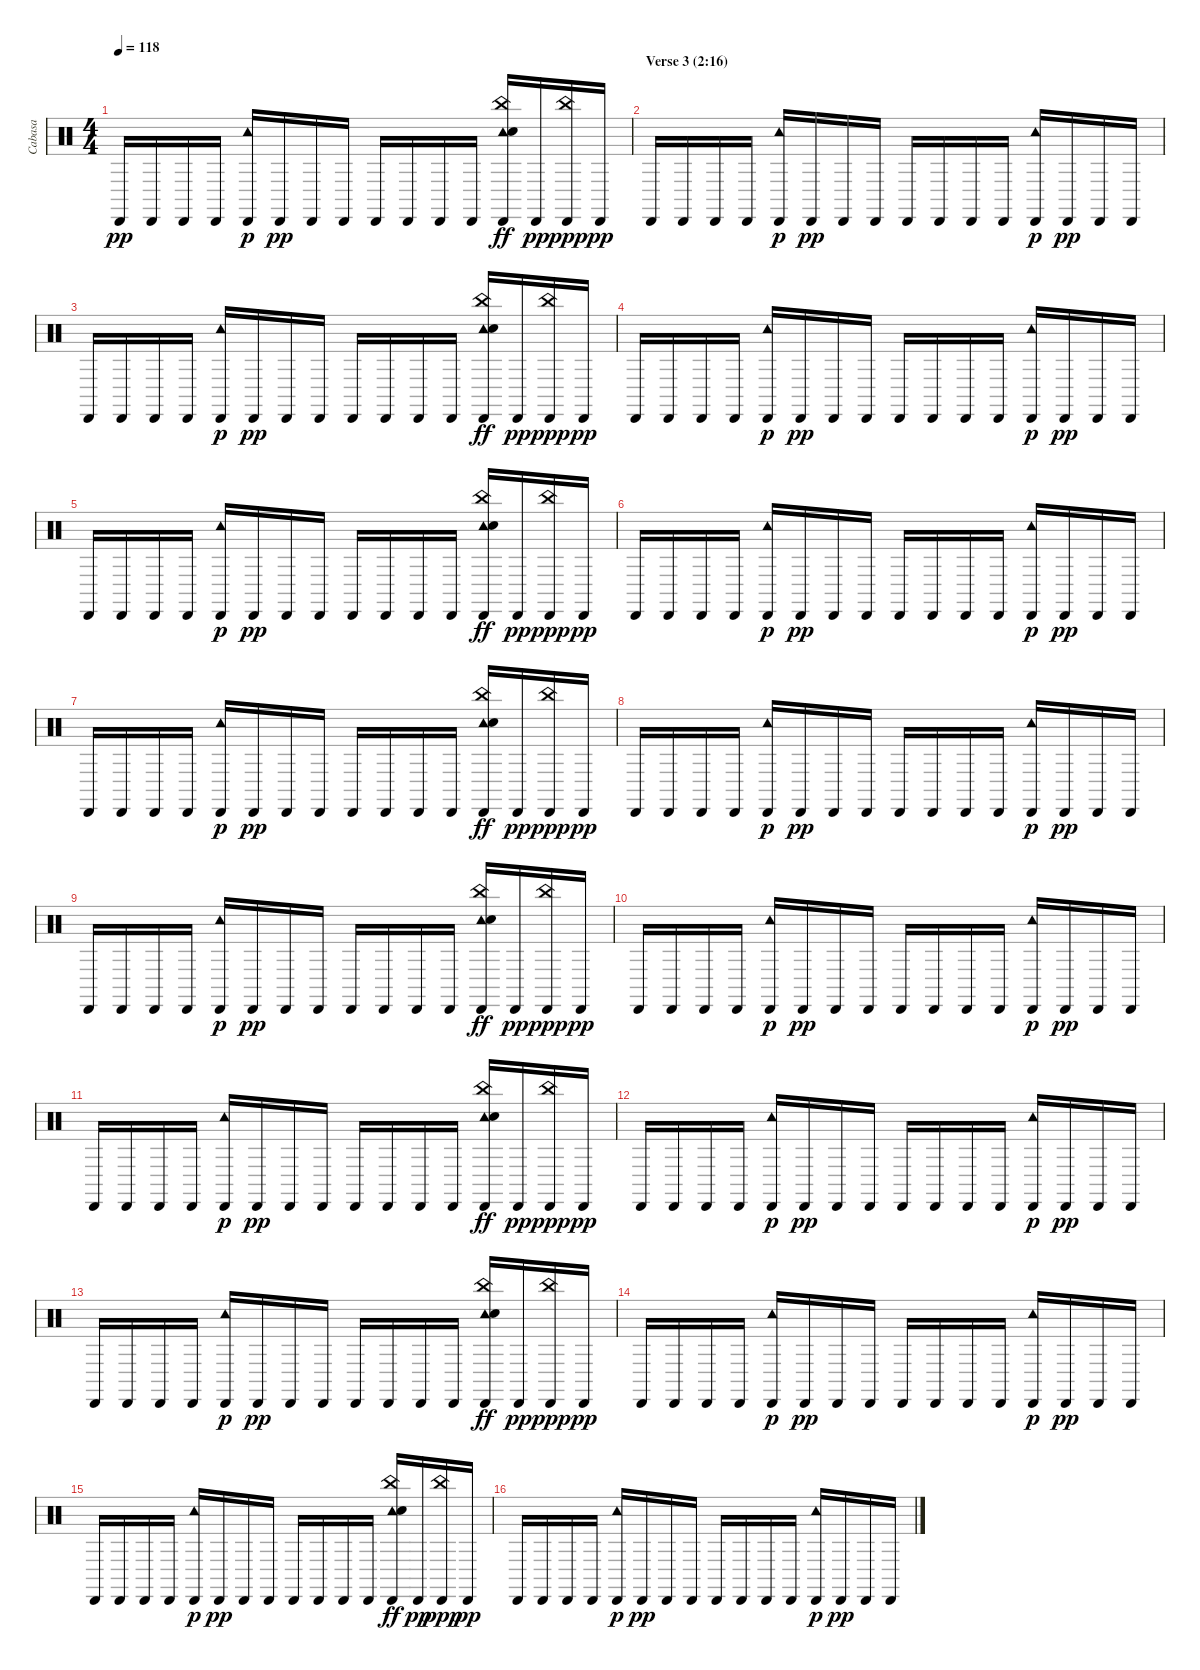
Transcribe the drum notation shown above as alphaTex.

\track ("Cabasa" "Cabasa") {instrument percussion}
\staff {score}
\articulation defaults
\ts (4 4)
\tempo 118
\clef neutral
\ks c "Cabasa (hit)".16{dy pp} "Cabasa (hit)".16 "Cabasa (hit)".16 "Cabasa (hit)".16
("Cabasa (hit)" "Tambourine (hit)").16{dy p} "Cabasa (hit)".16{dy pp} "Cabasa (hit)".16 "Cabasa (hit)".16 "Cabasa (hit)".16 "Cabasa (hit)".16 "Cabasa (hit)".16 "Cabasa (hit)".16 ("Cabasa (hit)" "Tambourine (hit)" "Hand Clap (hit)" "China (hit)").16{dy ff} "Cabasa (hit)".16{dy pp} ("Cabasa (hit)" "China (hit)").16{dy ppp} "Cabasa (hit)".16{dy pp} |
\section ("" "Verse 3 (2:16)")
"Cabasa (hit)".16 "Cabasa (hit)".16 "Cabasa (hit)".16 "Cabasa (hit)".16 ("Cabasa (hit)" "Tambourine (hit)").16{dy p} "Cabasa (hit)".16{dy pp} "Cabasa (hit)".16 "Cabasa (hit)".16 "Cabasa (hit)".16 "Cabasa (hit)".16 "Cabasa (hit)".16 "Cabasa (hit)".16 ("Cabasa (hit)" "Tambourine (hit)").16{dy p} "Cabasa (hit)".16{dy pp} "Cabasa (hit)".16 "Cabasa (hit)".16 |
"Cabasa (hit)".16 "Cabasa (hit)".16 "Cabasa (hit)".16 "Cabasa (hit)".16 ("Cabasa (hit)" "Tambourine (hit)").16{dy p} "Cabasa (hit)".16{dy pp} "Cabasa (hit)".16 "Cabasa (hit)".16 "Cabasa (hit)".16 "Cabasa (hit)".16 "Cabasa (hit)".16 "Cabasa (hit)".16 ("Cabasa (hit)" "Tambourine (hit)" "Hand Clap (hit)" "China (hit)").16{dy ff} "Cabasa (hit)".16{dy pp} ("Cabasa (hit)" "China (hit)").16{dy ppp} "Cabasa (hit)".16{dy pp} |
"Cabasa (hit)".16 "Cabasa (hit)".16 "Cabasa (hit)".16 "Cabasa (hit)".16 ("Cabasa (hit)" "Tambourine (hit)").16{dy p} "Cabasa (hit)".16{dy pp} "Cabasa (hit)".16 "Cabasa (hit)".16 "Cabasa (hit)".16 "Cabasa (hit)".16 "Cabasa (hit)".16 "Cabasa (hit)".16 ("Cabasa (hit)" "Tambourine (hit)").16{dy p} "Cabasa (hit)".16{dy pp} "Cabasa (hit)".16 "Cabasa (hit)".16 |
"Cabasa (hit)".16 "Cabasa (hit)".16 "Cabasa (hit)".16 "Cabasa (hit)".16 ("Cabasa (hit)" "Tambourine (hit)").16{dy p} "Cabasa (hit)".16{dy pp} "Cabasa (hit)".16 "Cabasa (hit)".16 "Cabasa (hit)".16 "Cabasa (hit)".16 "Cabasa (hit)".16 "Cabasa (hit)".16 ("Cabasa (hit)" "Tambourine (hit)" "Hand Clap (hit)" "China (hit)").16{dy ff} "Cabasa (hit)".16{dy pp} ("Cabasa (hit)" "China (hit)").16{dy ppp} "Cabasa (hit)".16{dy pp} |
"Cabasa (hit)".16 "Cabasa (hit)".16 "Cabasa (hit)".16 "Cabasa (hit)".16 ("Cabasa (hit)" "Tambourine (hit)").16{dy p} "Cabasa (hit)".16{dy pp} "Cabasa (hit)".16 "Cabasa (hit)".16 "Cabasa (hit)".16 "Cabasa (hit)".16 "Cabasa (hit)".16 "Cabasa (hit)".16 ("Cabasa (hit)" "Tambourine (hit)").16{dy p} "Cabasa (hit)".16{dy pp} "Cabasa (hit)".16 "Cabasa (hit)".16 |
"Cabasa (hit)".16 "Cabasa (hit)".16 "Cabasa (hit)".16 "Cabasa (hit)".16 ("Cabasa (hit)" "Tambourine (hit)").16{dy p} "Cabasa (hit)".16{dy pp} "Cabasa (hit)".16 "Cabasa (hit)".16 "Cabasa (hit)".16 "Cabasa (hit)".16 "Cabasa (hit)".16 "Cabasa (hit)".16 ("Cabasa (hit)" "Tambourine (hit)" "Hand Clap (hit)" "China (hit)").16{dy ff} "Cabasa (hit)".16{dy pp} ("Cabasa (hit)" "China (hit)").16{dy ppp} "Cabasa (hit)".16{dy pp} |
"Cabasa (hit)".16 "Cabasa (hit)".16 "Cabasa (hit)".16 "Cabasa (hit)".16 ("Cabasa (hit)" "Tambourine (hit)").16{dy p} "Cabasa (hit)".16{dy pp} "Cabasa (hit)".16 "Cabasa (hit)".16 "Cabasa (hit)".16 "Cabasa (hit)".16 "Cabasa (hit)".16 "Cabasa (hit)".16 ("Cabasa (hit)" "Tambourine (hit)").16{dy p} "Cabasa (hit)".16{dy pp} "Cabasa (hit)".16 "Cabasa (hit)".16 |
"Cabasa (hit)".16 "Cabasa (hit)".16 "Cabasa (hit)".16 "Cabasa (hit)".16 ("Cabasa (hit)" "Tambourine (hit)").16{dy p} "Cabasa (hit)".16{dy pp} "Cabasa (hit)".16 "Cabasa (hit)".16 "Cabasa (hit)".16 "Cabasa (hit)".16 "Cabasa (hit)".16 "Cabasa (hit)".16 ("Cabasa (hit)" "Tambourine (hit)" "Hand Clap (hit)" "China (hit)").16{dy ff} "Cabasa (hit)".16{dy pp} ("Cabasa (hit)" "China (hit)").16{dy ppp} "Cabasa (hit)".16{dy pp} |
"Cabasa (hit)".16 "Cabasa (hit)".16 "Cabasa (hit)".16 "Cabasa (hit)".16 ("Cabasa (hit)" "Tambourine (hit)").16{dy p} "Cabasa (hit)".16{dy pp} "Cabasa (hit)".16 "Cabasa (hit)".16 "Cabasa (hit)".16 "Cabasa (hit)".16 "Cabasa (hit)".16 "Cabasa (hit)".16 ("Cabasa (hit)" "Tambourine (hit)").16{dy p} "Cabasa (hit)".16{dy pp} "Cabasa (hit)".16 "Cabasa (hit)".16 |
"Cabasa (hit)".16 "Cabasa (hit)".16 "Cabasa (hit)".16 "Cabasa (hit)".16 ("Cabasa (hit)" "Tambourine (hit)").16{dy p} "Cabasa (hit)".16{dy pp} "Cabasa (hit)".16 "Cabasa (hit)".16 "Cabasa (hit)".16 "Cabasa (hit)".16 "Cabasa (hit)".16 "Cabasa (hit)".16 ("Cabasa (hit)" "Tambourine (hit)" "Hand Clap (hit)" "China (hit)").16{dy ff} "Cabasa (hit)".16{dy pp} ("Cabasa (hit)" "China (hit)").16{dy ppp} "Cabasa (hit)".16{dy pp} |
"Cabasa (hit)".16 "Cabasa (hit)".16 "Cabasa (hit)".16 "Cabasa (hit)".16 ("Cabasa (hit)" "Tambourine (hit)").16{dy p} "Cabasa (hit)".16{dy pp} "Cabasa (hit)".16 "Cabasa (hit)".16 "Cabasa (hit)".16 "Cabasa (hit)".16 "Cabasa (hit)".16 "Cabasa (hit)".16 ("Cabasa (hit)" "Tambourine (hit)").16{dy p} "Cabasa (hit)".16{dy pp} "Cabasa (hit)".16 "Cabasa (hit)".16 |
"Cabasa (hit)".16 "Cabasa (hit)".16 "Cabasa (hit)".16 "Cabasa (hit)".16 ("Cabasa (hit)" "Tambourine (hit)").16{dy p} "Cabasa (hit)".16{dy pp} "Cabasa (hit)".16 "Cabasa (hit)".16 "Cabasa (hit)".16 "Cabasa (hit)".16 "Cabasa (hit)".16 "Cabasa (hit)".16 ("Cabasa (hit)" "Tambourine (hit)" "Hand Clap (hit)" "China (hit)").16{dy ff} "Cabasa (hit)".16{dy pp} ("Cabasa (hit)" "China (hit)").16{dy ppp} "Cabasa (hit)".16{dy pp} |
"Cabasa (hit)".16 "Cabasa (hit)".16 "Cabasa (hit)".16 "Cabasa (hit)".16 ("Cabasa (hit)" "Tambourine (hit)").16{dy p} "Cabasa (hit)".16{dy pp} "Cabasa (hit)".16 "Cabasa (hit)".16 "Cabasa (hit)".16 "Cabasa (hit)".16 "Cabasa (hit)".16 "Cabasa (hit)".16 ("Cabasa (hit)" "Tambourine (hit)").16{dy p} "Cabasa (hit)".16{dy pp} "Cabasa (hit)".16 "Cabasa (hit)".16 |
"Cabasa (hit)".16 "Cabasa (hit)".16 "Cabasa (hit)".16 "Cabasa (hit)".16 ("Cabasa (hit)" "Tambourine (hit)").16{dy p} "Cabasa (hit)".16{dy pp} "Cabasa (hit)".16 "Cabasa (hit)".16 "Cabasa (hit)".16 "Cabasa (hit)".16 "Cabasa (hit)".16 "Cabasa (hit)".16 ("Cabasa (hit)" "Tambourine (hit)" "Hand Clap (hit)" "China (hit)").16{dy ff} "Cabasa (hit)".16{dy pp} ("Cabasa (hit)" "China (hit)").16{dy ppp} "Cabasa (hit)".16{dy pp} |
"Cabasa (hit)".16 "Cabasa (hit)".16 "Cabasa (hit)".16 "Cabasa (hit)".16 ("Cabasa (hit)" "Tambourine (hit)").16{dy p} "Cabasa (hit)".16{dy pp} "Cabasa (hit)".16 "Cabasa (hit)".16 "Cabasa (hit)".16 "Cabasa (hit)".16 "Cabasa (hit)".16 "Cabasa (hit)".16 ("Cabasa (hit)" "Tambourine (hit)").16{dy p} "Cabasa (hit)".16{dy pp} "Cabasa (hit)".16 "Cabasa (hit)".16
